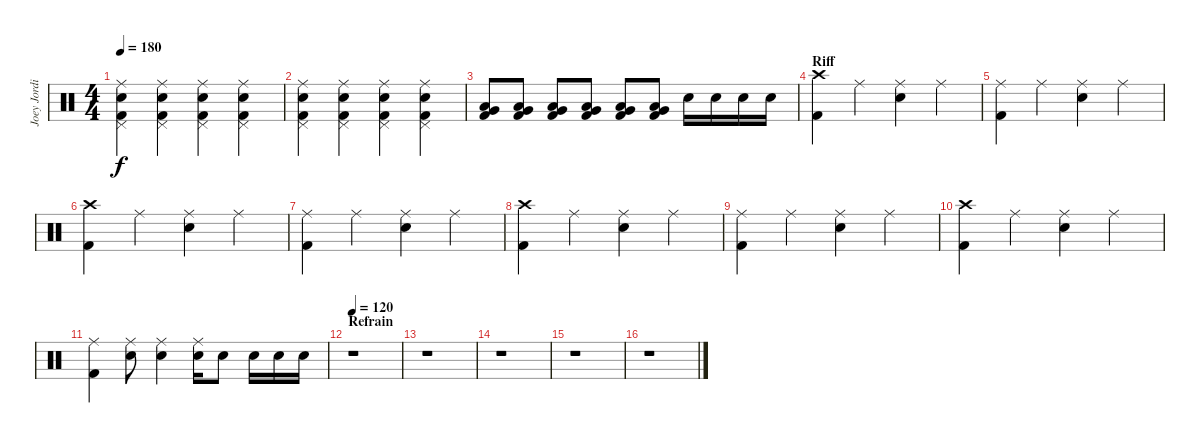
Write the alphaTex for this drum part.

\track ("Joey Jordison" "Joey Jordi") {instrument percussion}
\staff {score}
\articulation defaults
\ts (4 4)
\tempo 180
\clef neutral
\ks c
("Ride (middle)" "Pedal Hi-Hat (hit)" "Kick (hit) 2" "Electric Snare (hit)").4{dy f} ("Ride (middle)" "Pedal Hi-Hat (hit)" "Kick (hit) 2" "Electric Snare (hit)").4 ("Ride (middle)" "Pedal Hi-Hat (hit)" "Kick (hit) 2" "Electric Snare (hit)").4 ("Ride (middle)" "Pedal Hi-Hat (hit)" "Kick (hit) 2" "Electric Snare (hit)").4 |
("Ride (middle)" "Pedal Hi-Hat (hit)" "Kick (hit) 2" "Electric Snare (hit)").4 ("Ride (middle)" "Pedal Hi-Hat (hit)" "Kick (hit) 2" "Electric Snare (hit)").4 ("Ride (middle)" "Pedal Hi-Hat (hit)" "Kick (hit) 2" "Electric Snare (hit)").4 ("Ride (middle)" "Pedal Hi-Hat (hit)" "Kick (hit) 2" "Electric Snare (hit)").4 |
("Very Low Tom (hit)" "Low Tom (hit)" "Kick (hit) 2").8 ("Very Low Tom (hit)" "Low Tom (hit)" "Kick (hit) 2").8 ("Very Low Tom (hit)" "Low Tom (hit)" "Kick (hit) 2").8 ("Very Low Tom (hit)" "Low Tom (hit)" "Kick (hit) 2").8 ("Very Low Tom (hit)" "Low Tom (hit)" "Kick (hit) 2").8 ("Very Low Tom (hit)" "Low Tom (hit)" "Kick (hit) 2").8 "Electric Snare (hit)".16 "Electric Snare (hit)".16 "Electric Snare (hit)".16 "Electric Snare (hit)".16 |
\section ("" "Riff")
("Crash high (hit)" "Kick (hit) 2").4 "Ride (middle)".4 ("Ride (middle)" "Electric Snare (hit)").4 "Ride (middle)".4 |
("Ride (middle)" "Kick (hit) 2").4 "Ride (middle)".4 ("Ride (middle)" "Electric Snare (hit)").4 "Ride (middle)".4 |
("Crash high (hit)" "Kick (hit) 2").4 "Ride (middle)".4 ("Ride (middle)" "Electric Snare (hit)").4 "Ride (middle)".4 |
("Ride (middle)" "Kick (hit) 2").4 "Ride (middle)".4 ("Ride (middle)" "Electric Snare (hit)").4 "Ride (middle)".4 |
("Crash high (hit)" "Kick (hit) 2").4 "Ride (middle)".4 ("Ride (middle)" "Electric Snare (hit)").4 "Ride (middle)".4 |
("Ride (middle)" "Kick (hit) 2").4 "Ride (middle)".4 ("Ride (middle)" "Electric Snare (hit)").4 "Ride (middle)".4 |
("Crash high (hit)" "Kick (hit) 2").4 "Ride (middle)".4 ("Ride (middle)" "Electric Snare (hit)").4 "Ride (middle)".4 |
("Ride (middle)" "Kick (hit) 2").4 ("Ride (middle)" "Electric Snare (hit)").8 ("Ride (middle)" "Electric Snare (hit)").4 ("Ride (middle)" "Electric Snare (hit)").16 "Electric Snare (hit)".8 "Electric Snare (hit)".16 "Electric Snare (hit)".16 "Electric Snare (hit)".16 |
\section ("" "Refrain")
\tempo 120
r.1 |
r.1 |
r.1 |
r.1 |
r.1
